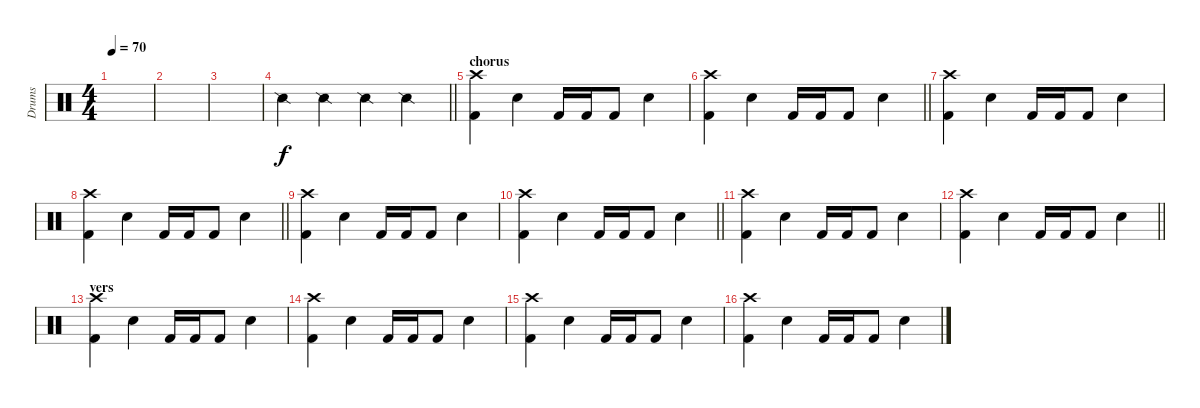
\track ("Drums" "Drums") {instrument percussion}
\staff {score}
\articulation defaults
\ts (4 4)
\tempo 70
\clef neutral
\ks c
|
|
|
\barLineRight lightlight "Snare (side stick) 2".4 "Snare (side stick) 2".4 "Snare (side stick) 2".4 "Snare (side stick) 2".4
|
\section ("" "chorus")
("Kick (hit) 2" "Crash high (hit)").4 "Electric Snare (hit)".4 "Kick (hit) 2".16 "Kick (hit) 2".16 "Kick (hit) 2".8 "Electric Snare (hit)".4 |
\barLineRight lightlight
("Kick (hit) 2" "Crash high (hit)").4 "Electric Snare (hit)".4 "Kick (hit) 2".16 "Kick (hit) 2".16 "Kick (hit) 2".8 "Electric Snare (hit)".4 |
("Kick (hit) 2" "Crash high (hit)").4 "Electric Snare (hit)".4 "Kick (hit) 2".16 "Kick (hit) 2".16 "Kick (hit) 2".8 "Electric Snare (hit)".4 |
\barLineRight lightlight
("Kick (hit) 2" "Crash high (hit)").4 "Electric Snare (hit)".4 "Kick (hit) 2".16 "Kick (hit) 2".16 "Kick (hit) 2".8 "Electric Snare (hit)".4 |
("Kick (hit) 2" "Crash high (hit)").4 "Electric Snare (hit)".4 "Kick (hit) 2".16 "Kick (hit) 2".16 "Kick (hit) 2".8 "Electric Snare (hit)".4 |
\barLineRight lightlight
("Kick (hit) 2" "Crash high (hit)").4 "Electric Snare (hit)".4 "Kick (hit) 2".16 "Kick (hit) 2".16 "Kick (hit) 2".8 "Electric Snare (hit)".4 |
("Kick (hit) 2" "Crash high (hit)").4 "Electric Snare (hit)".4 "Kick (hit) 2".16 "Kick (hit) 2".16 "Kick (hit) 2".8 "Electric Snare (hit)".4 |
\barLineRight lightlight
("Kick (hit) 2" "Crash high (hit)").4 "Electric Snare (hit)".4 "Kick (hit) 2".16 "Kick (hit) 2".16 "Kick (hit) 2".8 "Electric Snare (hit)".4 |
\section ("" "vers")
("Kick (hit) 2" "Crash high (hit)").4 "Electric Snare (hit)".4 "Kick (hit) 2".16 "Kick (hit) 2".16 "Kick (hit) 2".8 "Electric Snare (hit)".4 |
("Kick (hit) 2" "Crash high (hit)").4 "Electric Snare (hit)".4 "Kick (hit) 2".16 "Kick (hit) 2".16 "Kick (hit) 2".8 "Electric Snare (hit)".4 |
("Kick (hit) 2" "Crash high (hit)").4 "Electric Snare (hit)".4 "Kick (hit) 2".16 "Kick (hit) 2".16 "Kick (hit) 2".8 "Electric Snare (hit)".4 |
("Kick (hit) 2" "Crash high (hit)").4 "Electric Snare (hit)".4 "Kick (hit) 2".16 "Kick (hit) 2".16 "Kick (hit) 2".8 "Electric Snare (hit)".4
